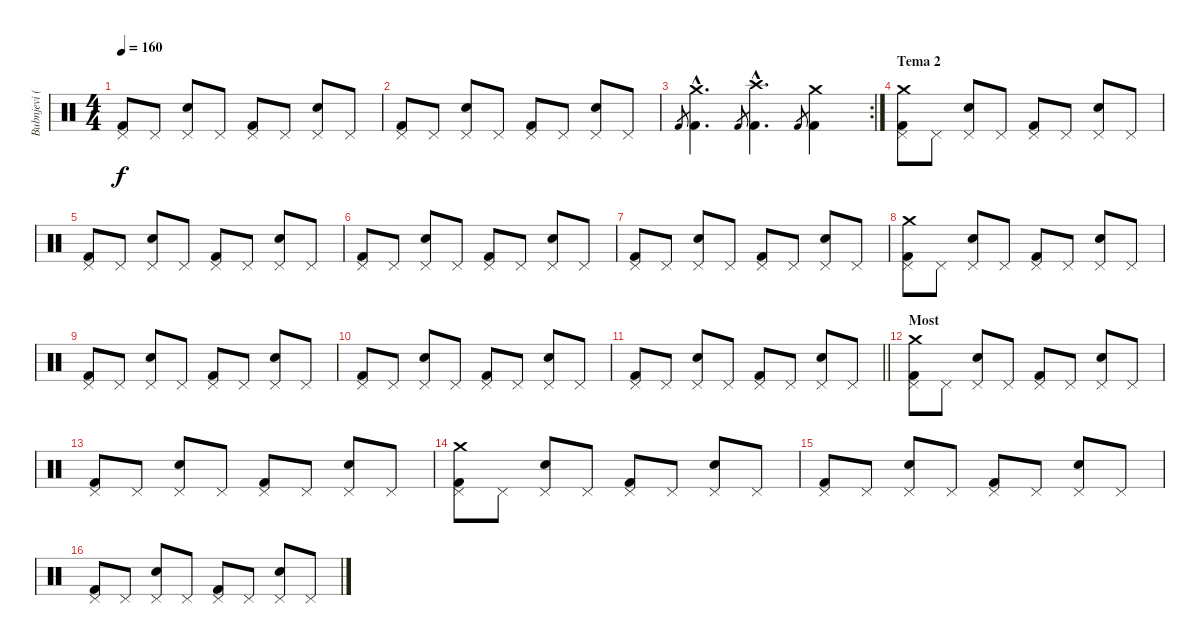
\track ("Bubnjevi (Nasko Budimic)" "Bubnjevi (") {instrument percussion}
\staff {score}
\articulation defaults
\ts (4 4)
\tempo 160
\clef neutral
\ks c
("Pedal Hi-Hat (hit)" "Kick (hit) 2").8{dy f} "Pedal Hi-Hat (hit)".8 ("Pedal Hi-Hat (hit)" "Snare (hit) 2").8 "Pedal Hi-Hat (hit)".8 ("Pedal Hi-Hat (hit)" "Kick (hit) 2").8 "Pedal Hi-Hat (hit)".8 ("Pedal Hi-Hat (hit)" "Snare (hit) 2").8 "Pedal Hi-Hat (hit)".8 |
("Pedal Hi-Hat (hit)" "Kick (hit) 2").8 "Pedal Hi-Hat (hit)".8 ("Pedal Hi-Hat (hit)" "Snare (hit) 2").8 "Pedal Hi-Hat (hit)".8 ("Pedal Hi-Hat (hit)" "Kick (hit) 2").8 "Pedal Hi-Hat (hit)".8 ("Pedal Hi-Hat (hit)" "Snare (hit) 2").8 "Pedal Hi-Hat (hit)".8 |
\rc 2 "Kick (hit) 2".8{gr}
("Crash medium (hit)"{hac} "Kick (hit) 2"{hac}).4{d} "Kick (hit) 2".8{gr} ("Crash high (hit)"{hac} "Kick (hit) 2"{hac}).4{d} "Kick (hit) 2".8{gr} ("Crash medium (hit)" "Kick (hit) 2").4 |
\section ("" "Tema 2")
("Crash medium (hit)" "Pedal Hi-Hat (hit)" "Kick (hit) 2").8 "Pedal Hi-Hat (hit)".8 ("Pedal Hi-Hat (hit)" "Snare (hit) 2").8 "Pedal Hi-Hat (hit)".8 ("Pedal Hi-Hat (hit)" "Kick (hit) 2").8 "Pedal Hi-Hat (hit)".8 ("Pedal Hi-Hat (hit)" "Snare (hit) 2").8 "Pedal Hi-Hat (hit)".8 |
("Pedal Hi-Hat (hit)" "Kick (hit) 2").8 "Pedal Hi-Hat (hit)".8 ("Pedal Hi-Hat (hit)" "Snare (hit) 2").8 "Pedal Hi-Hat (hit)".8 ("Pedal Hi-Hat (hit)" "Kick (hit) 2").8 "Pedal Hi-Hat (hit)".8 ("Pedal Hi-Hat (hit)" "Snare (hit) 2").8 "Pedal Hi-Hat (hit)".8 |
("Pedal Hi-Hat (hit)" "Kick (hit) 2").8 "Pedal Hi-Hat (hit)".8 ("Pedal Hi-Hat (hit)" "Snare (hit) 2").8 "Pedal Hi-Hat (hit)".8 ("Pedal Hi-Hat (hit)" "Kick (hit) 2").8 "Pedal Hi-Hat (hit)".8 ("Pedal Hi-Hat (hit)" "Snare (hit) 2").8 "Pedal Hi-Hat (hit)".8 |
("Pedal Hi-Hat (hit)" "Kick (hit) 2").8 "Pedal Hi-Hat (hit)".8 ("Pedal Hi-Hat (hit)" "Snare (hit) 2").8 "Pedal Hi-Hat (hit)".8 ("Pedal Hi-Hat (hit)" "Kick (hit) 2").8 "Pedal Hi-Hat (hit)".8 ("Pedal Hi-Hat (hit)" "Snare (hit) 2").8 "Pedal Hi-Hat (hit)".8 |
("Crash medium (hit)" "Pedal Hi-Hat (hit)" "Kick (hit) 2").8 "Pedal Hi-Hat (hit)".8 ("Pedal Hi-Hat (hit)" "Snare (hit) 2").8 "Pedal Hi-Hat (hit)".8 ("Pedal Hi-Hat (hit)" "Kick (hit) 2").8 "Pedal Hi-Hat (hit)".8 ("Pedal Hi-Hat (hit)" "Snare (hit) 2").8 "Pedal Hi-Hat (hit)".8 |
("Pedal Hi-Hat (hit)" "Kick (hit) 2").8 "Pedal Hi-Hat (hit)".8 ("Pedal Hi-Hat (hit)" "Snare (hit) 2").8 "Pedal Hi-Hat (hit)".8 ("Pedal Hi-Hat (hit)" "Kick (hit) 2").8 "Pedal Hi-Hat (hit)".8 ("Pedal Hi-Hat (hit)" "Snare (hit) 2").8 "Pedal Hi-Hat (hit)".8 |
("Pedal Hi-Hat (hit)" "Kick (hit) 2").8 "Pedal Hi-Hat (hit)".8 ("Pedal Hi-Hat (hit)" "Snare (hit) 2").8 "Pedal Hi-Hat (hit)".8 ("Pedal Hi-Hat (hit)" "Kick (hit) 2").8 "Pedal Hi-Hat (hit)".8 ("Pedal Hi-Hat (hit)" "Snare (hit) 2").8 "Pedal Hi-Hat (hit)".8 |
\barLineRight lightlight
("Pedal Hi-Hat (hit)" "Kick (hit) 2").8 "Pedal Hi-Hat (hit)".8 ("Pedal Hi-Hat (hit)" "Snare (hit) 2").8 "Pedal Hi-Hat (hit)".8 ("Pedal Hi-Hat (hit)" "Kick (hit) 2").8 "Pedal Hi-Hat (hit)".8 ("Pedal Hi-Hat (hit)" "Snare (hit) 2").8 "Pedal Hi-Hat (hit)".8 |
\section ("" "Most")
("Crash medium (hit)" "Pedal Hi-Hat (hit)" "Kick (hit) 2").8 "Pedal Hi-Hat (hit)".8 ("Pedal Hi-Hat (hit)" "Snare (hit) 2").8 "Pedal Hi-Hat (hit)".8 ("Pedal Hi-Hat (hit)" "Kick (hit) 2").8 "Pedal Hi-Hat (hit)".8 ("Pedal Hi-Hat (hit)" "Snare (hit) 2").8 "Pedal Hi-Hat (hit)".8 |
("Pedal Hi-Hat (hit)" "Kick (hit) 2").8 "Pedal Hi-Hat (hit)".8 ("Pedal Hi-Hat (hit)" "Snare (hit) 2").8 "Pedal Hi-Hat (hit)".8 ("Pedal Hi-Hat (hit)" "Kick (hit) 2").8 "Pedal Hi-Hat (hit)".8 ("Pedal Hi-Hat (hit)" "Snare (hit) 2").8 "Pedal Hi-Hat (hit)".8 |
("Crash medium (hit)" "Pedal Hi-Hat (hit)" "Kick (hit) 2").8 "Pedal Hi-Hat (hit)".8 ("Pedal Hi-Hat (hit)" "Snare (hit) 2").8 "Pedal Hi-Hat (hit)".8 ("Pedal Hi-Hat (hit)" "Kick (hit) 2").8 "Pedal Hi-Hat (hit)".8 ("Pedal Hi-Hat (hit)" "Snare (hit) 2").8 "Pedal Hi-Hat (hit)".8 |
("Pedal Hi-Hat (hit)" "Kick (hit) 2").8 "Pedal Hi-Hat (hit)".8 ("Pedal Hi-Hat (hit)" "Snare (hit) 2").8 "Pedal Hi-Hat (hit)".8 ("Pedal Hi-Hat (hit)" "Kick (hit) 2").8 "Pedal Hi-Hat (hit)".8 ("Pedal Hi-Hat (hit)" "Snare (hit) 2").8 "Pedal Hi-Hat (hit)".8 |
("Pedal Hi-Hat (hit)" "Kick (hit) 2").8 "Pedal Hi-Hat (hit)".8 ("Pedal Hi-Hat (hit)" "Snare (hit) 2").8 "Pedal Hi-Hat (hit)".8 ("Pedal Hi-Hat (hit)" "Kick (hit) 2").8 "Pedal Hi-Hat (hit)".8 ("Pedal Hi-Hat (hit)" "Snare (hit) 2").8 "Pedal Hi-Hat (hit)".8
